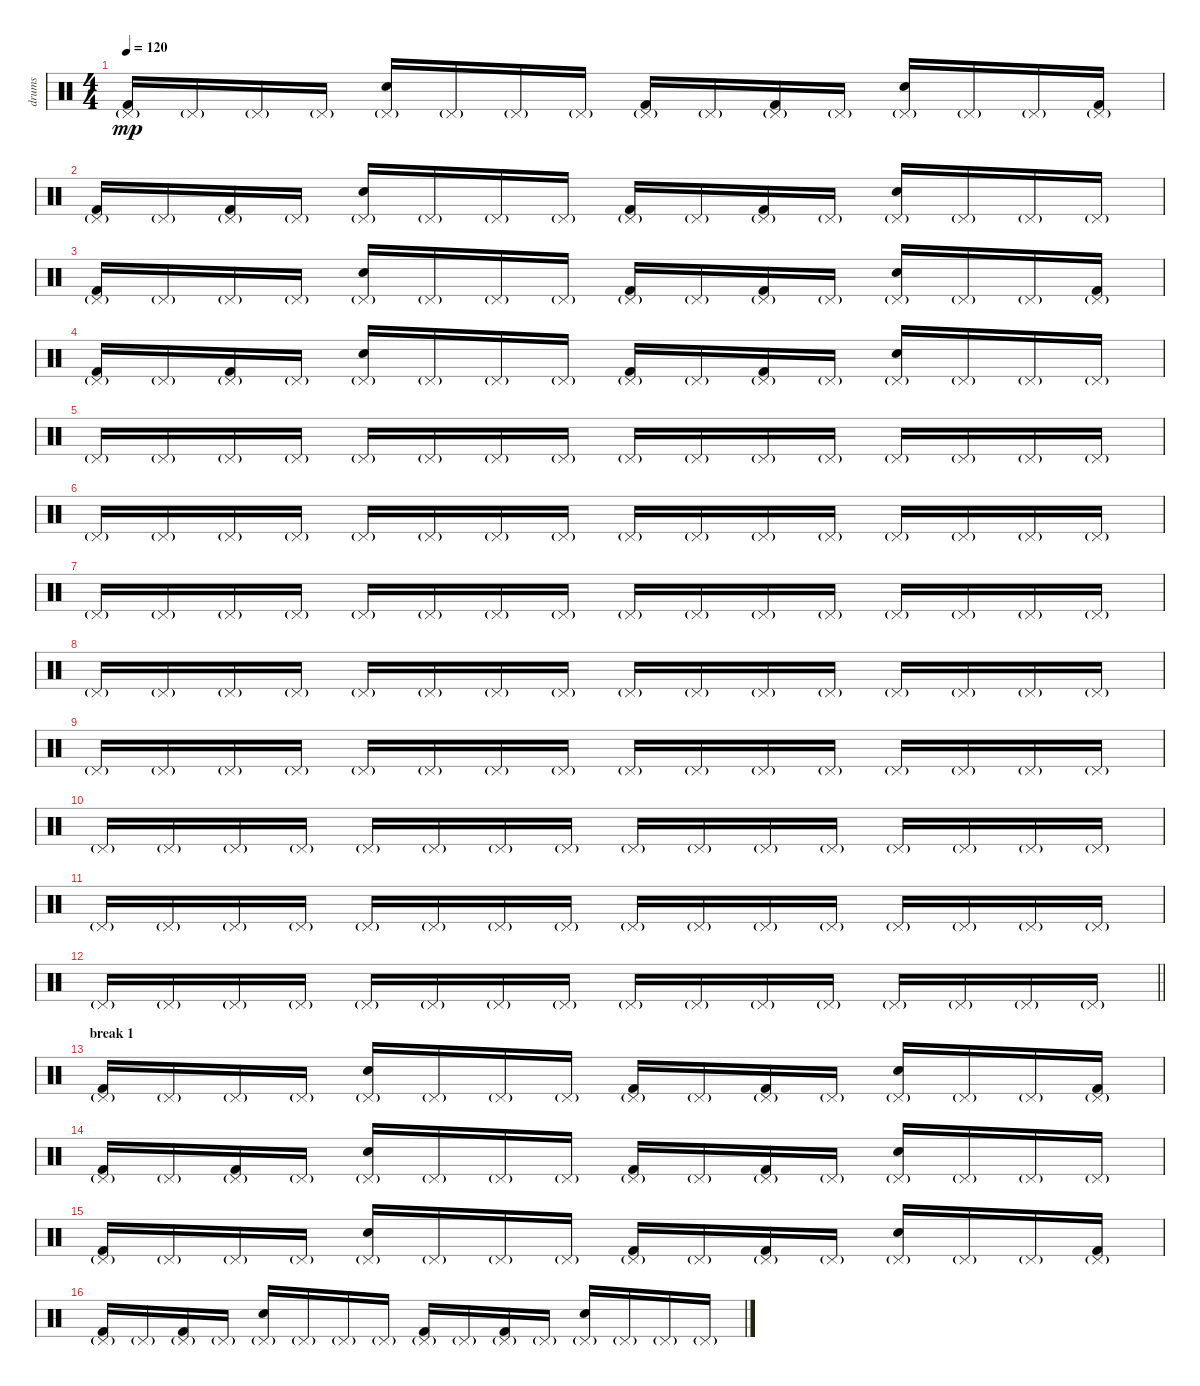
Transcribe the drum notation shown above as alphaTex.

\track ("drums" "drums") {instrument percussion}
\staff {score}
\articulation defaults
\ts (4 4)
\tempo 120
\clef neutral
\ks c
("Kick (hit) 2" "Pedal Hi-Hat (hit)"{g}).16{dy mp} "Pedal Hi-Hat (hit)"{g}.16 "Pedal Hi-Hat (hit)"{g}.16 "Pedal Hi-Hat (hit)"{g}.16 ("Hand Clap (hit)" "Pedal Hi-Hat (hit)"{g}).16 "Pedal Hi-Hat (hit)"{g}.16 "Pedal Hi-Hat (hit)"{g}.16 "Pedal Hi-Hat (hit)"{g}.16 ("Kick (hit) 2" "Pedal Hi-Hat (hit)"{g}).16 "Pedal Hi-Hat (hit)"{g}.16 ("Kick (hit) 2" "Pedal Hi-Hat (hit)"{g}).16 "Pedal Hi-Hat (hit)"{g}.16 ("Hand Clap (hit)" "Pedal Hi-Hat (hit)"{g}).16 "Pedal Hi-Hat (hit)"{g}.16 "Pedal Hi-Hat (hit)"{g}.16 ("Kick (hit) 2" "Pedal Hi-Hat (hit)"{g}).16 |
("Kick (hit) 2" "Pedal Hi-Hat (hit)"{g}).16 "Pedal Hi-Hat (hit)"{g}.16 ("Kick (hit) 2" "Pedal Hi-Hat (hit)"{g}).16 "Pedal Hi-Hat (hit)"{g}.16 ("Hand Clap (hit)" "Pedal Hi-Hat (hit)"{g}).16 "Pedal Hi-Hat (hit)"{g}.16 "Pedal Hi-Hat (hit)"{g}.16 "Pedal Hi-Hat (hit)"{g}.16 ("Kick (hit) 2" "Pedal Hi-Hat (hit)"{g}).16 "Pedal Hi-Hat (hit)"{g}.16 ("Kick (hit) 2" "Pedal Hi-Hat (hit)"{g}).16 "Pedal Hi-Hat (hit)"{g}.16 ("Hand Clap (hit)" "Pedal Hi-Hat (hit)"{g}).16 "Pedal Hi-Hat (hit)"{g}.16 "Pedal Hi-Hat (hit)"{g}.16 "Pedal Hi-Hat (hit)"{g}.16 |
("Kick (hit) 2" "Pedal Hi-Hat (hit)"{g}).16 "Pedal Hi-Hat (hit)"{g}.16 "Pedal Hi-Hat (hit)"{g}.16 "Pedal Hi-Hat (hit)"{g}.16 ("Hand Clap (hit)" "Pedal Hi-Hat (hit)"{g}).16 "Pedal Hi-Hat (hit)"{g}.16 "Pedal Hi-Hat (hit)"{g}.16 "Pedal Hi-Hat (hit)"{g}.16 ("Kick (hit) 2" "Pedal Hi-Hat (hit)"{g}).16 "Pedal Hi-Hat (hit)"{g}.16 ("Kick (hit) 2" "Pedal Hi-Hat (hit)"{g}).16 "Pedal Hi-Hat (hit)"{g}.16 ("Hand Clap (hit)" "Pedal Hi-Hat (hit)"{g}).16 "Pedal Hi-Hat (hit)"{g}.16 "Pedal Hi-Hat (hit)"{g}.16 ("Kick (hit) 2" "Pedal Hi-Hat (hit)"{g}).16 |
("Kick (hit) 2" "Pedal Hi-Hat (hit)"{g}).16 "Pedal Hi-Hat (hit)"{g}.16 ("Kick (hit) 2" "Pedal Hi-Hat (hit)"{g}).16 "Pedal Hi-Hat (hit)"{g}.16 ("Hand Clap (hit)" "Pedal Hi-Hat (hit)"{g}).16 "Pedal Hi-Hat (hit)"{g}.16 "Pedal Hi-Hat (hit)"{g}.16 "Pedal Hi-Hat (hit)"{g}.16 ("Kick (hit) 2" "Pedal Hi-Hat (hit)"{g}).16 "Pedal Hi-Hat (hit)"{g}.16 ("Kick (hit) 2" "Pedal Hi-Hat (hit)"{g}).16 "Pedal Hi-Hat (hit)"{g}.16 ("Hand Clap (hit)" "Pedal Hi-Hat (hit)"{g}).16 "Pedal Hi-Hat (hit)"{g}.16 "Pedal Hi-Hat (hit)"{g}.16 "Pedal Hi-Hat (hit)"{g}.16 |
"Pedal Hi-Hat (hit)"{g}.16 "Pedal Hi-Hat (hit)"{g}.16 "Pedal Hi-Hat (hit)"{g}.16 "Pedal Hi-Hat (hit)"{g}.16 "Pedal Hi-Hat (hit)"{g}.16 "Pedal Hi-Hat (hit)"{g}.16 "Pedal Hi-Hat (hit)"{g}.16 "Pedal Hi-Hat (hit)"{g}.16 "Pedal Hi-Hat (hit)"{g}.16 "Pedal Hi-Hat (hit)"{g}.16 "Pedal Hi-Hat (hit)"{g}.16 "Pedal Hi-Hat (hit)"{g}.16 "Pedal Hi-Hat (hit)"{g}.16 "Pedal Hi-Hat (hit)"{g}.16 "Pedal Hi-Hat (hit)"{g}.16 "Pedal Hi-Hat (hit)"{g}.16 |
"Pedal Hi-Hat (hit)"{g}.16 "Pedal Hi-Hat (hit)"{g}.16 "Pedal Hi-Hat (hit)"{g}.16 "Pedal Hi-Hat (hit)"{g}.16 "Pedal Hi-Hat (hit)"{g}.16 "Pedal Hi-Hat (hit)"{g}.16 "Pedal Hi-Hat (hit)"{g}.16 "Pedal Hi-Hat (hit)"{g}.16 "Pedal Hi-Hat (hit)"{g}.16 "Pedal Hi-Hat (hit)"{g}.16 "Pedal Hi-Hat (hit)"{g}.16 "Pedal Hi-Hat (hit)"{g}.16 "Pedal Hi-Hat (hit)"{g}.16 "Pedal Hi-Hat (hit)"{g}.16 "Pedal Hi-Hat (hit)"{g}.16 "Pedal Hi-Hat (hit)"{g}.16 |
"Pedal Hi-Hat (hit)"{g}.16 "Pedal Hi-Hat (hit)"{g}.16 "Pedal Hi-Hat (hit)"{g}.16 "Pedal Hi-Hat (hit)"{g}.16 "Pedal Hi-Hat (hit)"{g}.16 "Pedal Hi-Hat (hit)"{g}.16 "Pedal Hi-Hat (hit)"{g}.16 "Pedal Hi-Hat (hit)"{g}.16 "Pedal Hi-Hat (hit)"{g}.16 "Pedal Hi-Hat (hit)"{g}.16 "Pedal Hi-Hat (hit)"{g}.16 "Pedal Hi-Hat (hit)"{g}.16 "Pedal Hi-Hat (hit)"{g}.16 "Pedal Hi-Hat (hit)"{g}.16 "Pedal Hi-Hat (hit)"{g}.16 "Pedal Hi-Hat (hit)"{g}.16 |
"Pedal Hi-Hat (hit)"{g}.16 "Pedal Hi-Hat (hit)"{g}.16 "Pedal Hi-Hat (hit)"{g}.16 "Pedal Hi-Hat (hit)"{g}.16 "Pedal Hi-Hat (hit)"{g}.16 "Pedal Hi-Hat (hit)"{g}.16 "Pedal Hi-Hat (hit)"{g}.16 "Pedal Hi-Hat (hit)"{g}.16 "Pedal Hi-Hat (hit)"{g}.16 "Pedal Hi-Hat (hit)"{g}.16 "Pedal Hi-Hat (hit)"{g}.16 "Pedal Hi-Hat (hit)"{g}.16 "Pedal Hi-Hat (hit)"{g}.16 "Pedal Hi-Hat (hit)"{g}.16 "Pedal Hi-Hat (hit)"{g}.16 "Pedal Hi-Hat (hit)"{g}.16 |
"Pedal Hi-Hat (hit)"{g}.16 "Pedal Hi-Hat (hit)"{g}.16 "Pedal Hi-Hat (hit)"{g}.16 "Pedal Hi-Hat (hit)"{g}.16 "Pedal Hi-Hat (hit)"{g}.16 "Pedal Hi-Hat (hit)"{g}.16 "Pedal Hi-Hat (hit)"{g}.16 "Pedal Hi-Hat (hit)"{g}.16 "Pedal Hi-Hat (hit)"{g}.16 "Pedal Hi-Hat (hit)"{g}.16 "Pedal Hi-Hat (hit)"{g}.16 "Pedal Hi-Hat (hit)"{g}.16 "Pedal Hi-Hat (hit)"{g}.16 "Pedal Hi-Hat (hit)"{g}.16 "Pedal Hi-Hat (hit)"{g}.16 "Pedal Hi-Hat (hit)"{g}.16 |
"Pedal Hi-Hat (hit)"{g}.16 "Pedal Hi-Hat (hit)"{g}.16 "Pedal Hi-Hat (hit)"{g}.16 "Pedal Hi-Hat (hit)"{g}.16 "Pedal Hi-Hat (hit)"{g}.16 "Pedal Hi-Hat (hit)"{g}.16 "Pedal Hi-Hat (hit)"{g}.16 "Pedal Hi-Hat (hit)"{g}.16 "Pedal Hi-Hat (hit)"{g}.16 "Pedal Hi-Hat (hit)"{g}.16 "Pedal Hi-Hat (hit)"{g}.16 "Pedal Hi-Hat (hit)"{g}.16 "Pedal Hi-Hat (hit)"{g}.16 "Pedal Hi-Hat (hit)"{g}.16 "Pedal Hi-Hat (hit)"{g}.16 "Pedal Hi-Hat (hit)"{g}.16 |
"Pedal Hi-Hat (hit)"{g}.16 "Pedal Hi-Hat (hit)"{g}.16 "Pedal Hi-Hat (hit)"{g}.16 "Pedal Hi-Hat (hit)"{g}.16 "Pedal Hi-Hat (hit)"{g}.16 "Pedal Hi-Hat (hit)"{g}.16 "Pedal Hi-Hat (hit)"{g}.16 "Pedal Hi-Hat (hit)"{g}.16 "Pedal Hi-Hat (hit)"{g}.16 "Pedal Hi-Hat (hit)"{g}.16 "Pedal Hi-Hat (hit)"{g}.16 "Pedal Hi-Hat (hit)"{g}.16 "Pedal Hi-Hat (hit)"{g}.16 "Pedal Hi-Hat (hit)"{g}.16 "Pedal Hi-Hat (hit)"{g}.16 "Pedal Hi-Hat (hit)"{g}.16 |
\barLineRight lightlight "Pedal Hi-Hat (hit)"{g}.16 "Pedal Hi-Hat (hit)"{g}.16 "Pedal Hi-Hat (hit)"{g}.16 "Pedal Hi-Hat (hit)"{g}.16 "Pedal Hi-Hat (hit)"{g}.16 "Pedal Hi-Hat (hit)"{g}.16 "Pedal Hi-Hat (hit)"{g}.16 "Pedal Hi-Hat (hit)"{g}.16 "Pedal Hi-Hat (hit)"{g}.16 "Pedal Hi-Hat (hit)"{g}.16 "Pedal Hi-Hat (hit)"{g}.16 "Pedal Hi-Hat (hit)"{g}.16 "Pedal Hi-Hat (hit)"{g}.16 "Pedal Hi-Hat (hit)"{g}.16 "Pedal Hi-Hat (hit)"{g}.16 "Pedal Hi-Hat (hit)"{g}.16
|
\section ("" "break 1")
("Kick (hit) 2" "Pedal Hi-Hat (hit)"{g}).16 "Pedal Hi-Hat (hit)"{g}.16 "Pedal Hi-Hat (hit)"{g}.16 "Pedal Hi-Hat (hit)"{g}.16 ("Electric Snare (hit)" "Pedal Hi-Hat (hit)"{g}).16 "Pedal Hi-Hat (hit)"{g}.16 "Pedal Hi-Hat (hit)"{g}.16 "Pedal Hi-Hat (hit)"{g}.16 ("Kick (hit) 2" "Pedal Hi-Hat (hit)"{g}).16 "Pedal Hi-Hat (hit)"{g}.16 ("Kick (hit) 2" "Pedal Hi-Hat (hit)"{g}).16 "Pedal Hi-Hat (hit)"{g}.16 ("Electric Snare (hit)" "Pedal Hi-Hat (hit)"{g}).16 "Pedal Hi-Hat (hit)"{g}.16 "Pedal Hi-Hat (hit)"{g}.16 ("Kick (hit) 2" "Pedal Hi-Hat (hit)"{g}).16 |
("Kick (hit) 2" "Pedal Hi-Hat (hit)"{g}).16 "Pedal Hi-Hat (hit)"{g}.16 ("Kick (hit) 2" "Pedal Hi-Hat (hit)"{g}).16 "Pedal Hi-Hat (hit)"{g}.16 ("Electric Snare (hit)" "Pedal Hi-Hat (hit)"{g}).16 "Pedal Hi-Hat (hit)"{g}.16 "Pedal Hi-Hat (hit)"{g}.16 "Pedal Hi-Hat (hit)"{g}.16 ("Kick (hit) 2" "Pedal Hi-Hat (hit)"{g}).16 "Pedal Hi-Hat (hit)"{g}.16 ("Kick (hit) 2" "Pedal Hi-Hat (hit)"{g}).16 "Pedal Hi-Hat (hit)"{g}.16 ("Electric Snare (hit)" "Pedal Hi-Hat (hit)"{g}).16 "Pedal Hi-Hat (hit)"{g}.16 "Pedal Hi-Hat (hit)"{g}.16 "Pedal Hi-Hat (hit)"{g}.16 |
("Kick (hit) 2" "Pedal Hi-Hat (hit)"{g}).16 "Pedal Hi-Hat (hit)"{g}.16 "Pedal Hi-Hat (hit)"{g}.16 "Pedal Hi-Hat (hit)"{g}.16 ("Electric Snare (hit)" "Pedal Hi-Hat (hit)"{g}).16 "Pedal Hi-Hat (hit)"{g}.16 "Pedal Hi-Hat (hit)"{g}.16 "Pedal Hi-Hat (hit)"{g}.16 ("Kick (hit) 2" "Pedal Hi-Hat (hit)"{g}).16 "Pedal Hi-Hat (hit)"{g}.16 ("Kick (hit) 2" "Pedal Hi-Hat (hit)"{g}).16 "Pedal Hi-Hat (hit)"{g}.16 ("Electric Snare (hit)" "Pedal Hi-Hat (hit)"{g}).16 "Pedal Hi-Hat (hit)"{g}.16 "Pedal Hi-Hat (hit)"{g}.16 ("Kick (hit) 2" "Pedal Hi-Hat (hit)"{g}).16 |
("Kick (hit) 2" "Pedal Hi-Hat (hit)"{g}).16 "Pedal Hi-Hat (hit)"{g}.16 ("Kick (hit) 2" "Pedal Hi-Hat (hit)"{g}).16 "Pedal Hi-Hat (hit)"{g}.16 ("Electric Snare (hit)" "Pedal Hi-Hat (hit)"{g}).16 "Pedal Hi-Hat (hit)"{g}.16 "Pedal Hi-Hat (hit)"{g}.16 "Pedal Hi-Hat (hit)"{g}.16 ("Kick (hit) 2" "Pedal Hi-Hat (hit)"{g}).16 "Pedal Hi-Hat (hit)"{g}.16 ("Kick (hit) 2" "Pedal Hi-Hat (hit)"{g}).16 "Pedal Hi-Hat (hit)"{g}.16 ("Electric Snare (hit)" "Pedal Hi-Hat (hit)"{g}).16 "Pedal Hi-Hat (hit)"{g}.16 "Pedal Hi-Hat (hit)"{g}.16 "Pedal Hi-Hat (hit)"{g}.16
